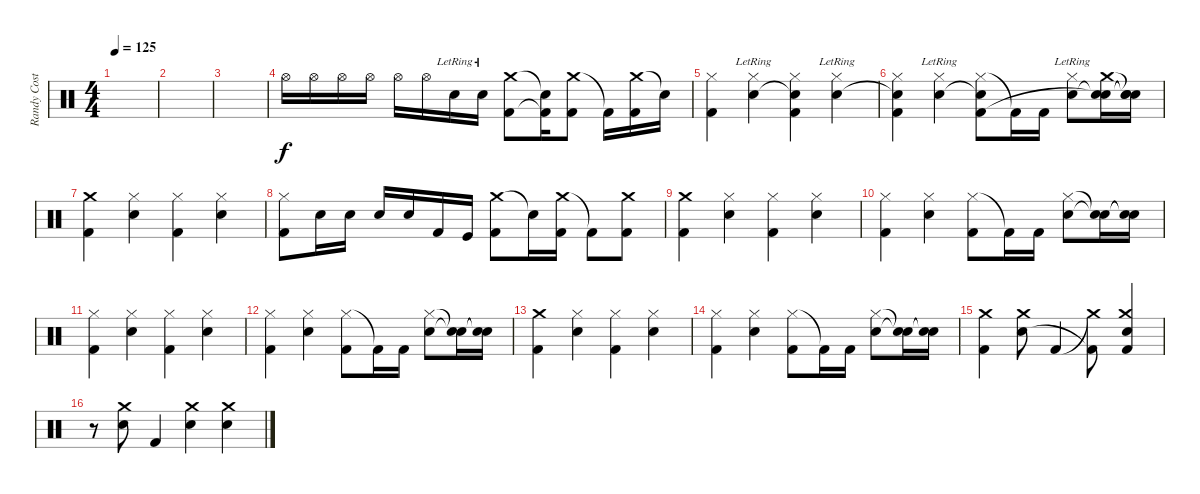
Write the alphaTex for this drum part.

\track ("Randy Costillo" "Randy Cost") {instrument percussion}
\staff {score}
\articulation defaults
\ts (4 4)
\tempo 125
\clef neutral
\ks c
|
|
|
"Hi-Hat (open)".16 "Hi-Hat (open)".16 "Hi-Hat (open)".16 "Hi-Hat (open)".16 "Hi-Hat (open)".16 "Hi-Hat (open)".16 "Snare (hit) 2"{lr}.16 "Snare (hit) 2"{lr}.16 ("Crash medium (hit)" "Kick (hit) 2").8 ("Snare (hit)"{t} "Kick (hit) 2"{t}).16 ("Crash medium (hit)" "Kick (hit) 2").8 "Kick (hit) 2"{t}.16 ("Crash medium (hit)" "Kick (hit) 2").16 "Snare (hit)"{t}.16 |
("Hi-Hat (closed)" "Kick (hit) 2").4 ("Hi-Hat (closed)" "Snare (hit) 2"{lr}).4 ("Hi-Hat (closed)" "Snare (hit)"{t} "Kick (hit) 2").4 ("Hi-Hat (closed)" "Snare (hit) 2"{lr}).4 |
("Hi-Hat (closed)" "Snare (hit)"{t} "Kick (hit) 2").4 ("Hi-Hat (closed)" "Snare (hit) 2"{lr}).4 ("Hi-Hat (closed)" "Snare (hit)"{t} "Kick (hit) 2").8 "Kick (hit) 2"{t}.16 "Kick (hit) 2".16 ("Hi-Hat (closed)" "Snare (hit) 2"{lr}).8 ("Crash medium (hit)" "Snare (hit)"{t} "Snare (hit)"{t}).16 ("Snare (hit)"{t} "Snare (hit)"{t} "Snare (hit)"{t}).16 |
("Crash medium (hit)" "Kick (hit) 2").4 ("Hi-Hat (closed)" "Snare (hit) 2").4 ("Hi-Hat (closed)" "Kick (hit) 2").4 ("Hi-Hat (closed)" "Snare (hit) 2").4 |
("Hi-Hat (closed)" "Kick (hit) 2").8 "Snare (hit) 2".16 "Snare (hit) 2".16 "Snare (hit) 2".16 "Snare (hit) 2".16 "Kick (hit) 2".16 "Kick (hit)".16 ("Crash medium (hit)" "Kick (hit) 2").8 "Snare (hit)"{t}.16 ("Crash medium (hit)" "Kick (hit) 2").16 "Kick (hit) 2"{t}.8 ("Crash medium (hit)" "Kick (hit) 2").8 |
("Crash medium (hit)" "Kick (hit) 2").4 ("Hi-Hat (closed)" "Snare (hit) 2").4 ("Hi-Hat (closed)" "Kick (hit) 2").4 ("Hi-Hat (closed)" "Snare (hit) 2").4 |
("Hi-Hat (closed)" "Kick (hit) 2").4 ("Hi-Hat (closed)" "Snare (hit) 2").4 ("Hi-Hat (closed)" "Kick (hit) 2").8 "Kick (hit) 2"{t}.16 "Kick (hit) 2".16 ("Hi-Hat (closed)" "Snare (hit) 2").8 ("Snare (hit)"{t} "Snare (hit)"{t}).16 ("Snare (hit)"{t} "Snare (hit)"{t}).16 |
("Hi-Hat (closed)" "Kick (hit) 2").4 ("Hi-Hat (closed)" "Snare (hit) 2").4 ("Hi-Hat (closed)" "Kick (hit) 2").4 ("Hi-Hat (closed)" "Snare (hit) 2").4 |
("Hi-Hat (closed)" "Kick (hit) 2").4 ("Hi-Hat (closed)" "Snare (hit) 2").4 ("Hi-Hat (closed)" "Kick (hit) 2").8 "Kick (hit) 2"{t}.16 "Kick (hit) 2".16 ("Hi-Hat (closed)" "Snare (hit) 2").8 ("Snare (hit)"{t} "Snare (hit)"{t}).16 ("Snare (hit)"{t} "Snare (hit)"{t}).16 |
("Crash medium (hit)" "Kick (hit) 2").4 ("Hi-Hat (closed)" "Snare (hit) 2").4 ("Hi-Hat (closed)" "Kick (hit) 2").4 ("Hi-Hat (closed)" "Snare (hit) 2").4 |
("Hi-Hat (closed)" "Kick (hit) 2").4 ("Hi-Hat (closed)" "Snare (hit) 2").4 ("Hi-Hat (closed)" "Kick (hit) 2").8 "Kick (hit) 2"{t}.16 "Kick (hit) 2".16 ("Hi-Hat (closed)" "Snare (hit) 2").8 ("Snare (hit)"{t} "Snare (hit)"{t}).16 ("Snare (hit)"{t} "Snare (hit)"{t}).16 |
("Crash medium (hit)" "Kick (hit) 2").4 ("Crash medium (hit)" "Snare (hit) 2").8 "Kick (hit) 2".4 ("Crash medium (hit)"{t} "Kick (hit) 2"{t}).8 ("Crash medium (hit)" "Snare (hit) 2" "Kick (hit) 2").4 |
r.8 ("Crash medium (hit)" "Snare (hit) 2").8 "Kick (hit) 2".4 ("Crash medium (hit)" "Snare (hit) 2").4 ("Crash medium (hit)" "Snare (hit) 2").4
